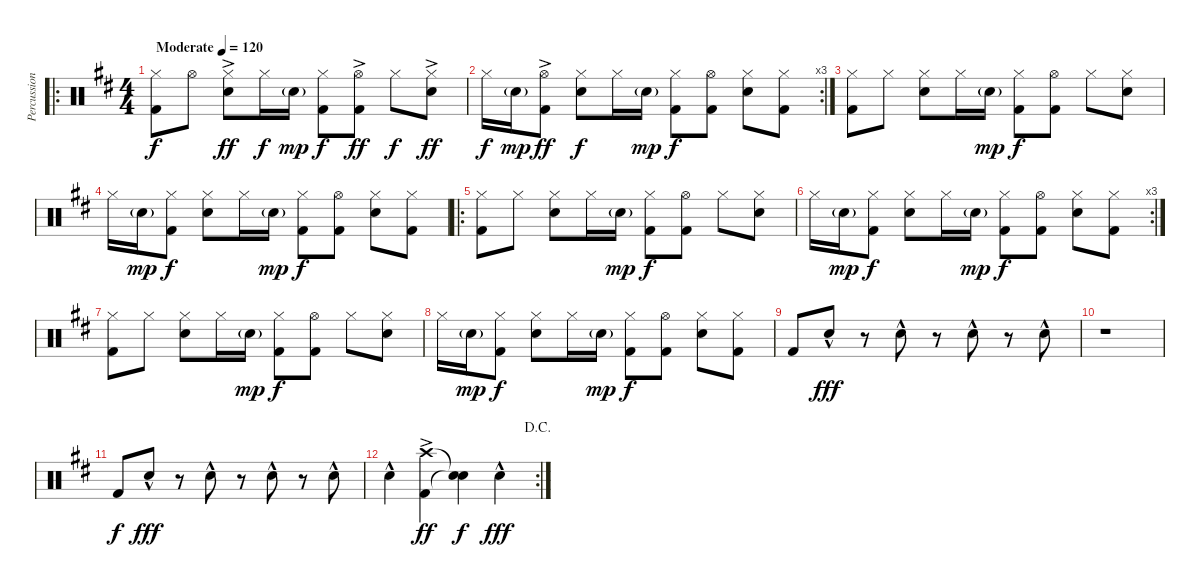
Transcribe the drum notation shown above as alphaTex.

\track ("Percussion" "Percussion") {instrument percussion}
\staff {score}
\articulation defaults
\ro
\ts (4 4)
\tempo (120 "Moderate")
\clef neutral
\ks d
("Hi-Hat (closed)" "Kick (hit) 2").8{dy f} "Hi-Hat (open)".8 ("Hi-Hat (closed)" "Electric Snare (hit)"{ac}).8{dy ff} "Hi-Hat (closed)".16{dy f} "Electric Snare (hit)"{g}.16{dy mp} ("Hi-Hat (closed)" "Kick (hit) 2").8{dy f} ("Hi-Hat (open)" "Kick (hit) 2"{ac}).8{dy ff} "Hi-Hat (closed)".8{dy f} ("Hi-Hat (closed)" "Electric Snare (hit)"{ac}).8{dy ff} |
\rc 3 "Hi-Hat (closed)".16{dy f} "Electric Snare (hit)"{g}.16{dy mp}
("Hi-Hat (open)"{ac} "Kick (hit) 2").8{dy ff} ("Hi-Hat (closed)" "Electric Snare (hit)").8{dy f} "Hi-Hat (closed)".16 "Electric Snare (hit)"{g}.16{dy mp} ("Hi-Hat (closed)" "Kick (hit) 2").8{dy f} ("Hi-Hat (open)" "Kick (hit) 2").8 ("Hi-Hat (closed)" "Electric Snare (hit)").8 ("Hi-Hat (closed)" "Kick (hit) 2").8 |
("Hi-Hat (closed)" "Kick (hit) 2").8 "Hi-Hat (closed)".8 ("Hi-Hat (closed)" "Electric Snare (hit)").8 "Hi-Hat (closed)".16 "Electric Snare (hit)"{g}.16{dy mp} ("Hi-Hat (closed)" "Kick (hit) 2").8{dy f} ("Hi-Hat (open)" "Kick (hit) 2").8 "Hi-Hat (closed)".8 ("Hi-Hat (closed)" "Electric Snare (hit)").8 |
"Hi-Hat (closed)".16 "Electric Snare (hit)"{g}.16{dy mp} ("Hi-Hat (closed)" "Kick (hit) 2").8{dy f} ("Hi-Hat (closed)" "Electric Snare (hit)").8 "Hi-Hat (closed)".16 "Electric Snare (hit)"{g}.16{dy mp} ("Hi-Hat (closed)" "Kick (hit) 2").8{dy f} ("Hi-Hat (open)" "Kick (hit) 2").8 ("Hi-Hat (closed)" "Electric Snare (hit)").8 ("Hi-Hat (closed)" "Kick (hit) 2").8 |
\ro
("Hi-Hat (closed)" "Kick (hit) 2").8 "Hi-Hat (closed)".8 ("Hi-Hat (closed)" "Electric Snare (hit)").8 "Hi-Hat (closed)".16 "Electric Snare (hit)"{g}.16{dy mp} ("Hi-Hat (closed)" "Kick (hit) 2").8{dy f} ("Hi-Hat (open)" "Kick (hit) 2").8 "Hi-Hat (closed)".8 ("Hi-Hat (closed)" "Electric Snare (hit)").8 |
\rc 3 "Hi-Hat (closed)".16 "Electric Snare (hit)"{g}.16{dy mp}
("Hi-Hat (closed)" "Kick (hit) 2").8{dy f} ("Hi-Hat (closed)" "Electric Snare (hit)").8 "Hi-Hat (closed)".16 "Electric Snare (hit)"{g}.16{dy mp} ("Hi-Hat (closed)" "Kick (hit) 2").8{dy f} ("Hi-Hat (open)" "Kick (hit) 2").8 ("Hi-Hat (closed)" "Electric Snare (hit)").8 ("Hi-Hat (closed)" "Kick (hit) 2").8 |
("Hi-Hat (closed)" "Kick (hit) 2").8 "Hi-Hat (closed)".8 ("Hi-Hat (closed)" "Electric Snare (hit)").8 "Hi-Hat (closed)".16 "Electric Snare (hit)"{g}.16{dy mp} ("Hi-Hat (closed)" "Kick (hit) 2").8{dy f} ("Hi-Hat (open)" "Kick (hit) 2").8 "Hi-Hat (closed)".8 ("Hi-Hat (closed)" "Electric Snare (hit)").8 |
"Hi-Hat (closed)".16 "Electric Snare (hit)"{g}.16{dy mp} ("Hi-Hat (closed)" "Kick (hit) 2").8{dy f} ("Hi-Hat (closed)" "Electric Snare (hit)").8 "Hi-Hat (closed)".16 "Electric Snare (hit)"{g}.16{dy mp} ("Hi-Hat (closed)" "Kick (hit) 2").8{dy f} ("Hi-Hat (open)" "Kick (hit) 2").8 ("Hi-Hat (closed)" "Electric Snare (hit)").8 ("Hi-Hat (closed)" "Kick (hit) 2").8 |
"Kick (hit) 2".8 "Electric Snare (hit)"{hac}.8{dy fff} r.8 "Electric Snare (hit)"{hac}.8 r.8 "Electric Snare (hit)"{hac}.8 r.8 "Electric Snare (hit)"{hac}.8 |
r.1 |
"Kick (hit) 2".8{dy f} "Electric Snare (hit)"{hac}.8{dy fff} r.8 "Electric Snare (hit)"{hac}.8 r.8 "Electric Snare (hit)"{hac}.8 r.8 "Electric Snare (hit)"{hac}.8 |
\rc 2
\jump dacapo "Electric Snare (hit)"{hac}.4
("Crash high (hit)" "Kick (hit) 2"{ac}).4{dy ff} ("Snare (hit)"{t} "Snare (hit)"{t}).4{dy f} "Electric Snare (hit)"{hac}.4{dy fff}
